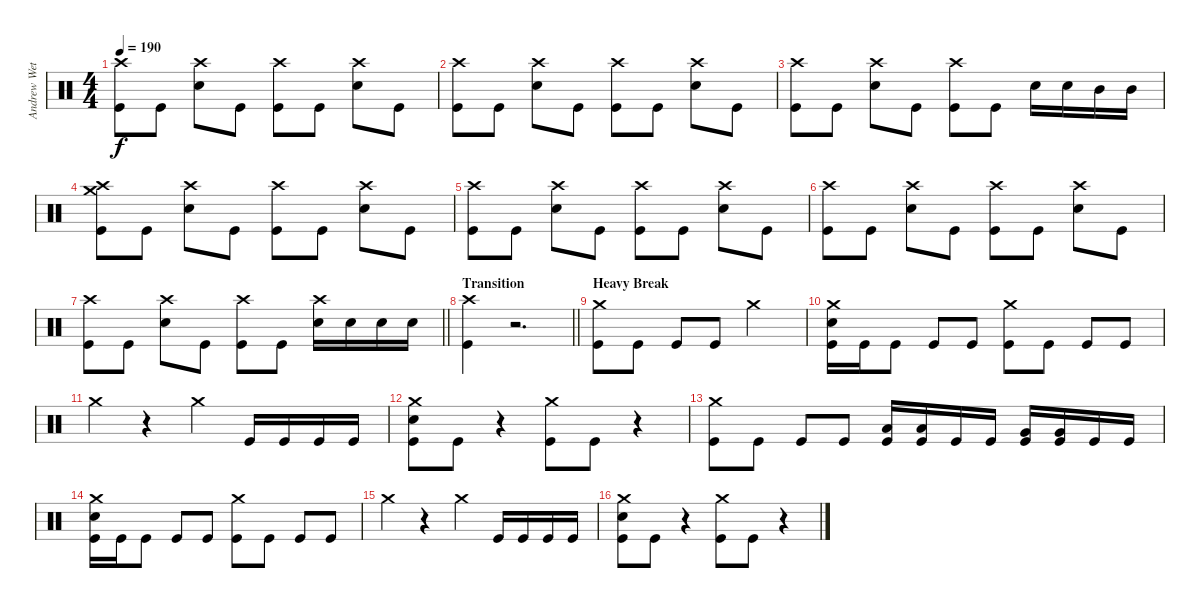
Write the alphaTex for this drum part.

\track ("Andrew Wetzel" "Andrew Wet") {instrument percussion}
\staff {score}
\articulation defaults
\ts (4 4)
\tempo 190
\clef neutral
\ks c
("Crash high (hit)" "Kick (hit)").8{dy f} "Kick (hit)".8 ("Crash high (hit)" "Snare (hit) 2").8 "Kick (hit)".8 ("Crash high (hit)" "Kick (hit)").8 "Kick (hit)".8 ("Crash high (hit)" "Snare (hit) 2").8 "Kick (hit)".8 |
("Crash high (hit)" "Kick (hit)").8 "Kick (hit)".8 ("Crash high (hit)" "Snare (hit) 2").8 "Kick (hit)".8 ("Crash high (hit)" "Kick (hit)").8 "Kick (hit)".8 ("Crash high (hit)" "Snare (hit) 2").8 "Kick (hit)".8 |
("Crash high (hit)" "Kick (hit)").8 "Kick (hit)".8 ("Crash high (hit)" "Snare (hit) 2").8 "Kick (hit)".8 ("Crash high (hit)" "Kick (hit)").8 "Kick (hit)".8 "Snare (hit) 2".16 "Snare (hit) 2".16 "Mid Tom (hit)".16 "Mid Tom (hit)".16 |
("Crash high (hit)" "Crash medium (hit)" "Kick (hit)").8 "Kick (hit)".8 ("Crash high (hit)" "Snare (hit) 2").8 "Kick (hit)".8 ("Crash high (hit)" "Kick (hit)").8 "Kick (hit)".8 ("Crash high (hit)" "Snare (hit) 2").8 "Kick (hit)".8 |
("Crash high (hit)" "Kick (hit)").8 "Kick (hit)".8 ("Crash high (hit)" "Snare (hit) 2").8 "Kick (hit)".8 ("Crash high (hit)" "Kick (hit)").8 "Kick (hit)".8 ("Crash high (hit)" "Snare (hit) 2").8 "Kick (hit)".8 |
("Crash high (hit)" "Kick (hit)").8 "Kick (hit)".8 ("Crash high (hit)" "Snare (hit) 2").8 "Kick (hit)".8 ("Crash high (hit)" "Kick (hit)").8 "Kick (hit)".8 ("Crash high (hit)" "Snare (hit) 2").8 "Kick (hit)".8 |
\barLineRight lightlight
("Crash high (hit)" "Kick (hit)").8 "Kick (hit)".8 ("Crash high (hit)" "Snare (hit) 2").8 "Kick (hit)".8 ("Crash high (hit)" "Kick (hit)").8 "Kick (hit)".8 ("Crash high (hit)" "Snare (hit) 2").16 "Snare (hit) 2".16 "Snare (hit) 2".16 "Snare (hit) 2".16 |
\section ("" "Transition")
\barLineRight lightlight
("Crash high (hit)" "Kick (hit)").4 r.2{d} |
\section ("" "Heavy Break")
("Crash medium (hit)" "Kick (hit)").8 "Kick (hit)".8 "Kick (hit)".8 "Kick (hit)".8 "Crash medium (hit)".2 |
("Crash medium (hit)" "Snare (hit) 2" "Kick (hit)").16 "Kick (hit)".16 "Kick (hit)".8 "Kick (hit)".8 "Kick (hit)".8 ("Crash medium (hit)" "Kick (hit)").8 "Kick (hit)".8 "Kick (hit)".8 "Kick (hit)".8 |
"Crash medium (hit)".4 r.4 "Crash medium (hit)".4 "Kick (hit)".16 "Kick (hit)".16 "Kick (hit)".16 "Kick (hit)".16 |
("Crash medium (hit)" "Snare (hit) 2" "Kick (hit)").8 "Kick (hit)".8 r.4 ("Crash medium (hit)" "Kick (hit)").8 "Kick (hit)".8 r.4 |
("Crash medium (hit)" "Kick (hit)").8 "Kick (hit)".8 "Kick (hit)".8 "Kick (hit)".8 ("Low Tom (hit)" "Kick (hit)").16 ("Low Tom (hit)" "Kick (hit)").16 "Kick (hit)".16 "Kick (hit)".16 ("Very Low Tom (hit)" "Kick (hit)").16 ("Very Low Tom (hit)" "Kick (hit)").16 "Kick (hit)".16 "Kick (hit)".16 |
("Crash medium (hit)" "Snare (hit) 2" "Kick (hit)").16 "Kick (hit)".16 "Kick (hit)".8 "Kick (hit)".8 "Kick (hit)".8 ("Crash medium (hit)" "Kick (hit)").8 "Kick (hit)".8 "Kick (hit)".8 "Kick (hit)".8 |
"Crash medium (hit)".4 r.4 "Crash medium (hit)".4 "Kick (hit)".16 "Kick (hit)".16 "Kick (hit)".16 "Kick (hit)".16 |
("Crash medium (hit)" "Snare (hit) 2" "Kick (hit)").8 "Kick (hit)".8 r.4 ("Crash medium (hit)" "Kick (hit)").8 "Kick (hit)".8 r.4
